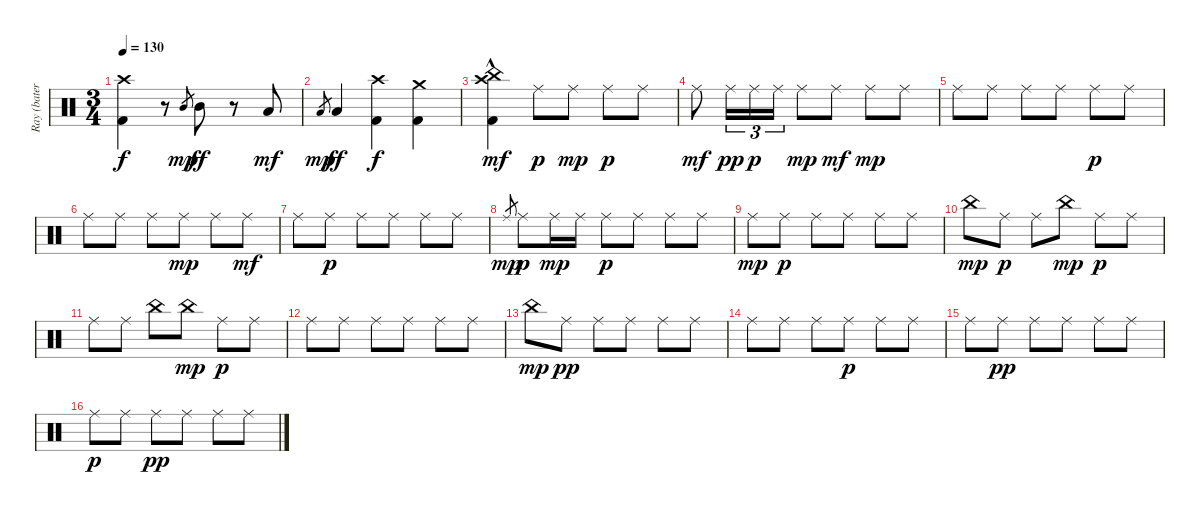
\track ("Ray (batería)" "Ray (bater") {instrument percussion}
\staff {score}
\articulation defaults
\ts (3 4)
\tempo 130
\clef neutral
\ks c
("Crash high (hit)" "Kick (hit) 2").4{dy f} r.8 "Mid Tom (hit)".8{gr dy mp} "Mid Tom (hit)".8{dy ff} r.8 "Low Tom (hit)".8{dy mf} |
"Low Tom (hit)".8{gr dy mp} "Low Tom (hit)".4{dy ff} ("Crash high (hit)" "Kick (hit) 2").4{dy f} ("Crash medium (hit)" "Kick (hit) 2").4 |
("Crash high (hit)" "China (hit)" "Kick (hit) 2"{hac}).4{dy mf} "Ride (middle)".8{dy p} "Ride (middle)".8{dy mp} "Ride (middle)".8{dy p} "Ride (middle)".8 |
"Ride (middle)".8{dy mf} "Ride (middle)".16{tu (3 2) dy pp} "Ride (middle)".16{tu (3 2) dy p} "Ride (middle)".16{tu (3 2)} "Ride (middle)".8{dy mp} "Ride (middle)".8{dy mf} "Ride (middle)".8{dy mp} "Ride (middle)".8 |
"Ride (middle)".8 "Ride (middle)".8 "Ride (middle)".8 "Ride (middle)".8 "Ride (middle)".8{dy p} "Ride (middle)".8 |
"Ride (middle)".8 "Ride (middle)".8 "Ride (middle)".8 "Ride (middle)".8{dy mp} "Ride (middle)".8 "Ride (middle)".8{dy mf} |
"Ride (middle)".8 "Ride (middle)".8{dy p} "Ride (middle)".8 "Ride (middle)".8 "Ride (middle)".8 "Ride (middle)".8 |
"Ride (middle)".8{gr dy mp} "Ride (middle)".8{dy p} "Ride (middle)".16{dy mp} "Ride (middle)".16 "Ride (middle)".8{dy p} "Ride (middle)".8 "Ride (middle)".8 "Ride (middle)".8 |
"Ride (middle)".8{dy mp} "Ride (middle)".8{dy p} "Ride (middle)".8 "Ride (middle)".8 "Ride (middle)".8 "Ride (middle)".8 |
"China (hit)".8{dy mp} "Ride (middle)".8{dy p} "Ride (middle)".8 "China (hit)".8{dy mp} "Ride (middle)".8{dy p} "Ride (middle)".8 |
"Ride (middle)".8 "Ride (middle)".8 "China (hit)".8 "China (hit)".8{dy mp} "Ride (middle)".8{dy p} "Ride (middle)".8 |
"Ride (middle)".8 "Ride (middle)".8 "Ride (middle)".8 "Ride (middle)".8 "Ride (middle)".8 "Ride (middle)".8 |
"China (hit)".8{dy mp} "Ride (middle)".8{dy pp} "Ride (middle)".8 "Ride (middle)".8 "Ride (middle)".8 "Ride (middle)".8 |
"Ride (middle)".8 "Ride (middle)".8 "Ride (middle)".8 "Ride (middle)".8{dy p} "Ride (middle)".8 "Ride (middle)".8 |
"Ride (middle)".8 "Ride (middle)".8{dy pp} "Ride (middle)".8 "Ride (middle)".8 "Ride (middle)".8 "Ride (middle)".8 |
"Ride (middle)".8{dy p} "Ride (middle)".8 "Ride (middle)".8{dy pp} "Ride (middle)".8 "Ride (middle)".8 "Ride (middle)".8
